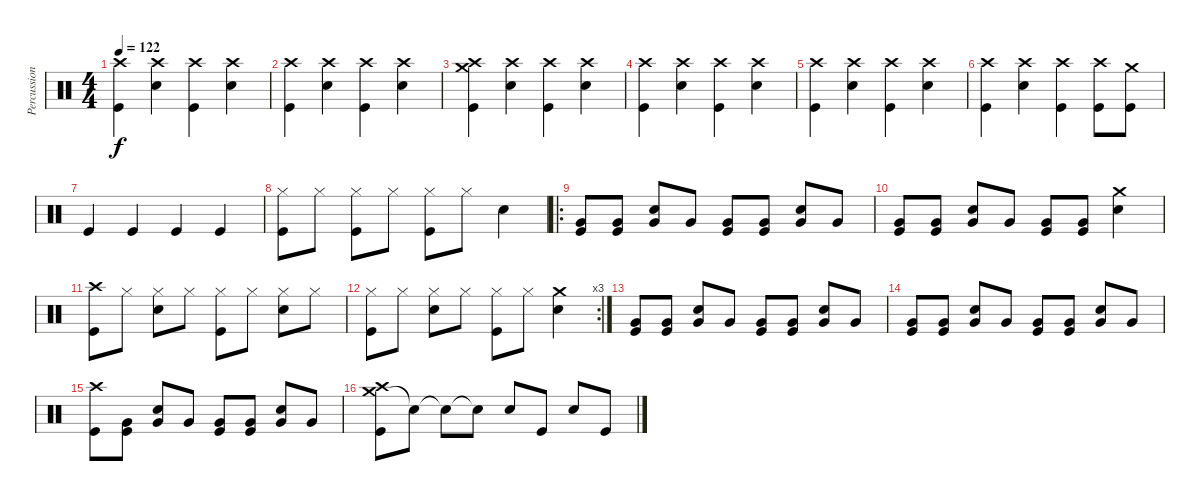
\track ("Percussion" "Percussion") {instrument percussion}
\staff {score}
\articulation defaults
\ts (4 4)
\tempo 122
\clef neutral
\ks c
("Crash high (hit)" "Kick (hit)").4{dy f} ("Crash high (hit)" "Snare (hit) 2").4 ("Crash high (hit)" "Kick (hit)").4 ("Crash high (hit)" "Snare (hit) 2").4 |
("Crash high (hit)" "Kick (hit)").4 ("Crash high (hit)" "Snare (hit) 2").4 ("Crash high (hit)" "Kick (hit)").4 ("Crash high (hit)" "Snare (hit) 2").4 |
("Crash high (hit)" "Crash medium (hit)" "Kick (hit)").4 ("Crash high (hit)" "Snare (hit) 2").4 ("Crash high (hit)" "Kick (hit)").4 ("Crash high (hit)" "Snare (hit) 2").4 |
("Crash high (hit)" "Kick (hit)").4 ("Crash high (hit)" "Snare (hit) 2").4 ("Crash high (hit)" "Kick (hit)").4 ("Crash high (hit)" "Snare (hit) 2").4 |
("Crash high (hit)" "Kick (hit)").4 ("Crash high (hit)" "Snare (hit) 2").4 ("Crash high (hit)" "Kick (hit)").4 ("Crash high (hit)" "Snare (hit) 2").4 |
("Crash high (hit)" "Kick (hit)").4 ("Crash high (hit)" "Snare (hit) 2").4 ("Crash high (hit)" "Kick (hit)").4 ("Crash high (hit)" "Kick (hit)").8 ("Crash medium (hit)" "Kick (hit)").8 |
"Kick (hit)".4 "Kick (hit)".4 "Kick (hit)".4 "Kick (hit)".4 |
("Hi-Hat (closed)" "Kick (hit)").8 "Hi-Hat (closed)".8 ("Hi-Hat (closed)" "Kick (hit)").8 "Hi-Hat (closed)".8 ("Hi-Hat (closed)" "Kick (hit)").8 "Hi-Hat (closed)".8 "Snare (hit) 2".4 |
\ro
("Very Low Tom (hit)" "Kick (hit)").8 ("Very Low Tom (hit)" "Kick (hit)").8 ("Very Low Tom (hit)" "Snare (hit) 2").8 "Very Low Tom (hit)".8 ("Very Low Tom (hit)" "Kick (hit)").8 ("Very Low Tom (hit)" "Kick (hit)").8 ("Very Low Tom (hit)" "Snare (hit) 2").8 "Very Low Tom (hit)".8 |
("Very Low Tom (hit)" "Kick (hit)").8 ("Very Low Tom (hit)" "Kick (hit)").8 ("Very Low Tom (hit)" "Snare (hit) 2").8 "Very Low Tom (hit)".8 ("Very Low Tom (hit)" "Kick (hit)").8 ("Very Low Tom (hit)" "Kick (hit)").8 ("Crash medium (hit)" "Snare (hit) 2").4 |
("Crash high (hit)" "Kick (hit)").8 "Hi-Hat (closed)".8 ("Hi-Hat (closed)" "Snare (hit) 2").8 "Hi-Hat (closed)".8 ("Hi-Hat (closed)" "Kick (hit)").8 "Hi-Hat (closed)".8 ("Hi-Hat (closed)" "Snare (hit) 2").8 "Hi-Hat (closed)".8 |
\rc 3
("Hi-Hat (closed)" "Kick (hit)").8 "Hi-Hat (closed)".8 ("Hi-Hat (closed)" "Snare (hit) 2").8 "Hi-Hat (closed)".8 ("Hi-Hat (closed)" "Kick (hit)").8 "Hi-Hat (closed)".8 ("Crash medium (hit)" "Snare (hit) 2").4 |
("Very Low Tom (hit)" "Kick (hit)").8 ("Very Low Tom (hit)" "Kick (hit)").8 ("Very Low Tom (hit)" "Snare (hit) 2").8 "Very Low Tom (hit)".8 ("Very Low Tom (hit)" "Kick (hit)").8 ("Very Low Tom (hit)" "Kick (hit)").8 ("Very Low Tom (hit)" "Snare (hit) 2").8 "Very Low Tom (hit)".8 |
("Very Low Tom (hit)" "Kick (hit)").8 ("Very Low Tom (hit)" "Kick (hit)").8 ("Very Low Tom (hit)" "Snare (hit) 2").8 "Very Low Tom (hit)".8 ("Very Low Tom (hit)" "Kick (hit)").8 ("Very Low Tom (hit)" "Kick (hit)").8 ("Very Low Tom (hit)" "Snare (hit) 2").8 "Very Low Tom (hit)".8 |
("Crash high (hit)" "Kick (hit)").8 ("Very Low Tom (hit)" "Kick (hit)").8 ("Very Low Tom (hit)" "Snare (hit) 2").8 "Very Low Tom (hit)".8 ("Very Low Tom (hit)" "Kick (hit)").8 ("Very Low Tom (hit)" "Kick (hit)").8 ("Very Low Tom (hit)" "Snare (hit) 2").8 "Very Low Tom (hit)".8 |
("Crash medium (hit)" "Crash high (hit)" "Kick (hit)").8 "Snare (hit)"{t}.8 "Snare (hit)"{t}.8 "Snare (hit)"{t}.8 "Snare (hit) 2".8 "Kick (hit)".8 "Snare (hit) 2".8 "Kick (hit)".8
